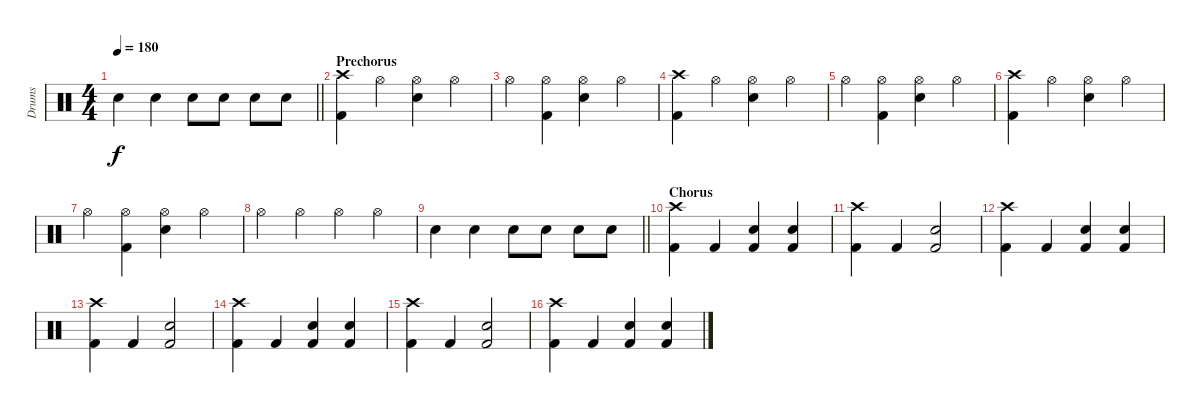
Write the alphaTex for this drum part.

\track ("Drums" "Drums") {instrument percussion}
\staff {score}
\articulation defaults
\ts (4 4)
\tempo 180
\clef neutral
\barLineRight lightlight
\ks c "Electric Snare (hit)".4{dy f} "Electric Snare (hit)".4 "Electric Snare (hit)".8 "Electric Snare (hit)".8 "Electric Snare (hit)".8 "Electric Snare (hit)".8
|
\section ("" "Prechorus")
("Kick (hit) 2" "Crash high (hit)").4 "Hi-Hat (open)".4 ("Hi-Hat (open)" "Electric Snare (hit)").4 "Hi-Hat (open)".4 |
"Hi-Hat (open)".4 ("Hi-Hat (open)" "Kick (hit) 2").4 ("Hi-Hat (open)" "Electric Snare (hit)").4 "Hi-Hat (open)".4 |
("Kick (hit) 2" "Crash high (hit)").4 "Hi-Hat (open)".4 ("Hi-Hat (open)" "Electric Snare (hit)").4 "Hi-Hat (open)".4 |
"Hi-Hat (open)".4 ("Hi-Hat (open)" "Kick (hit) 2").4 ("Hi-Hat (open)" "Electric Snare (hit)").4 "Hi-Hat (open)".4 |
("Kick (hit) 2" "Crash high (hit)").4 "Hi-Hat (open)".4 ("Hi-Hat (open)" "Electric Snare (hit)").4 "Hi-Hat (open)".4 |
"Hi-Hat (open)".4 ("Hi-Hat (open)" "Kick (hit) 2").4 ("Hi-Hat (open)" "Electric Snare (hit)").4 "Hi-Hat (open)".4 |
"Hi-Hat (open)".4 "Hi-Hat (open)".4 "Hi-Hat (open)".4 "Hi-Hat (open)".4 |
\barLineRight lightlight "Electric Snare (hit)".4 "Electric Snare (hit)".4 "Electric Snare (hit)".8 "Electric Snare (hit)".8 "Electric Snare (hit)".8 "Electric Snare (hit)".8
|
\section ("" "Chorus")
("Kick (hit) 2" "Crash high (hit)").4 "Kick (hit) 2".4 ("Electric Snare (hit)" "Kick (hit) 2").4 ("Electric Snare (hit)" "Kick (hit) 2").4 |
("Kick (hit) 2" "Crash high (hit)").4 "Kick (hit) 2".4 ("Electric Snare (hit)" "Kick (hit) 2").2 |
("Kick (hit) 2" "Crash high (hit)").4 "Kick (hit) 2".4 ("Electric Snare (hit)" "Kick (hit) 2").4 ("Electric Snare (hit)" "Kick (hit) 2").4 |
("Kick (hit) 2" "Crash high (hit)").4 "Kick (hit) 2".4 ("Electric Snare (hit)" "Kick (hit) 2").2 |
("Kick (hit) 2" "Crash high (hit)").4 "Kick (hit) 2".4 ("Electric Snare (hit)" "Kick (hit) 2").4 ("Electric Snare (hit)" "Kick (hit) 2").4 |
("Kick (hit) 2" "Crash high (hit)").4 "Kick (hit) 2".4 ("Electric Snare (hit)" "Kick (hit) 2").2 |
("Kick (hit) 2" "Crash high (hit)").4 "Kick (hit) 2".4 ("Electric Snare (hit)" "Kick (hit) 2").4 ("Electric Snare (hit)" "Kick (hit) 2").4
